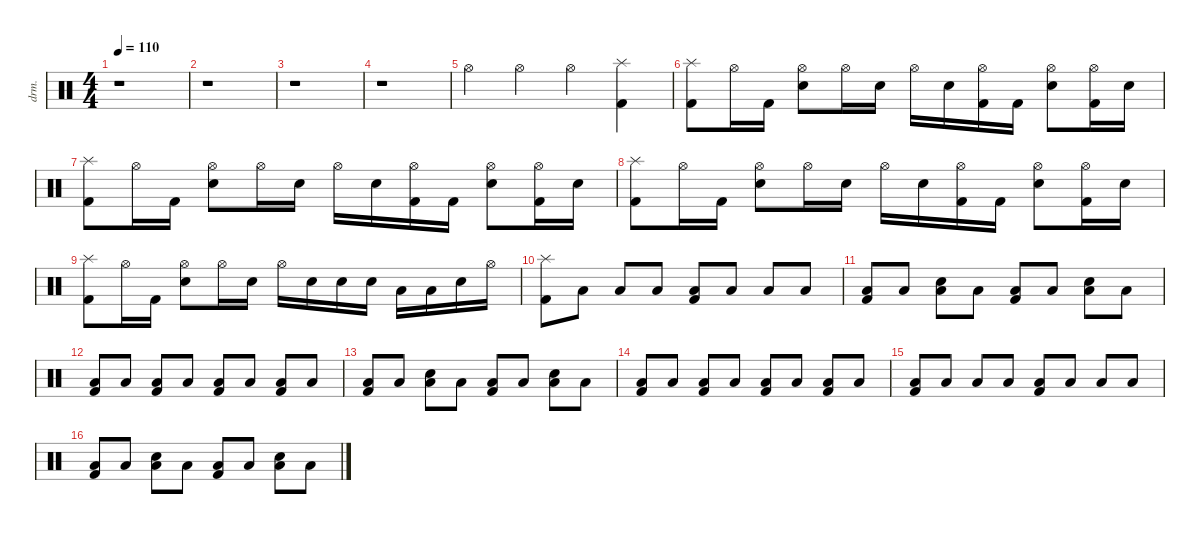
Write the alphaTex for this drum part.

\defaultSystemsLayout 4
\hideDynamics
\bracketExtendMode nobrackets
\track ("Drumkit" "drm.") {instrument percussion}
\staff {score}
\articulation defaults
\ts (4 4)
\tempo 110
\clef neutral
\ks c
r.1{dy mf beam Down} |
r.1{beam Down} |
r.1{beam Down} |
r.1{beam Down} |
"Hi-Hat (open)".4{beam Down} "Hi-Hat (open)".4{beam Down} "Hi-Hat (open)".4{beam Down} ("Splash (hit)" "Kick (hit) 2").4{beam Down} |
("Splash (hit)" "Kick (hit) 2").8{beam Down} "Hi-Hat (open)".16{beam Down} "Kick (hit) 2".16{beam Down} ("Hi-Hat (open)" "Snare (hit) 2").8{beam Down} "Hi-Hat (open)".16{beam Down} "Snare (hit) 2".16{beam Down} "Hi-Hat (open)".16{beam Down} "Snare (hit) 2".16{beam Down} ("Hi-Hat (open)" "Kick (hit) 2").16{beam Down} "Kick (hit) 2".16{beam Down} ("Hi-Hat (open)" "Snare (hit) 2").8{beam Down} ("Hi-Hat (open)" "Kick (hit) 2").16{beam Down} "Snare (hit) 2".16{beam Down} |
("Splash (hit)" "Kick (hit) 2").8{beam Down} "Hi-Hat (open)".16{beam Down} "Kick (hit) 2".16{beam Down} ("Hi-Hat (open)" "Snare (hit) 2").8{beam Down} "Hi-Hat (open)".16{beam Down} "Snare (hit) 2".16{beam Down} "Hi-Hat (open)".16{beam Down} "Snare (hit) 2".16{beam Down} ("Hi-Hat (open)" "Kick (hit) 2").16{beam Down} "Kick (hit) 2".16{beam Down} ("Hi-Hat (open)" "Snare (hit) 2").8{beam Down} ("Hi-Hat (open)" "Kick (hit) 2").16{beam Down} "Snare (hit) 2".16{beam Down} |
("Splash (hit)" "Kick (hit) 2").8{beam Down} "Hi-Hat (open)".16{beam Down} "Kick (hit) 2".16{beam Down} ("Hi-Hat (open)" "Snare (hit) 2").8{beam Down} "Hi-Hat (open)".16{beam Down} "Snare (hit) 2".16{beam Down} "Hi-Hat (open)".16{beam Down} "Snare (hit) 2".16{beam Down} ("Hi-Hat (open)" "Kick (hit) 2").16{beam Down} "Kick (hit) 2".16{beam Down} ("Hi-Hat (open)" "Snare (hit) 2").8{beam Down} ("Hi-Hat (open)" "Kick (hit) 2").16{beam Down} "Snare (hit) 2".16{beam Down} |
("Splash (hit)" "Kick (hit) 2").8{beam Down} "Hi-Hat (open)".16{beam Down} "Kick (hit) 2".16{beam Down} ("Snare (hit) 2" "Hi-Hat (open)").8{beam Down} "Hi-Hat (open)".16{beam Down} "Snare (hit) 2".16{beam Down} "Hi-Hat (open)".16{beam Down} "Snare (hit) 2".16{beam Down} "Snare (hit) 2".16{beam Down} "Snare (hit) 2".16{beam Down} "Low Tom (hit)".16{beam Down} "Low Tom (hit)".16{beam Down} "Snare (hit) 2".16{beam Down} "Hi-Hat (open)".16{beam Down} |
("Splash (hit)" "Kick (hit) 2").8{beam Down} "Low Tom (hit)".8{beam Down} "Low Tom (hit)".8{beam Up} "Low Tom (hit)".8{beam Up} ("Low Tom (hit)" "Kick (hit) 2").8{beam Up} "Low Tom (hit)".8{beam Up} "Low Tom (hit)".8{beam Up} "Low Tom (hit)".8{beam Up} |
("Kick (hit) 2" "Low Tom (hit)").8{beam Up} "Low Tom (hit)".8{beam Up} ("Low Tom (hit)" "Snare (hit) 2").8{beam Down} "Low Tom (hit)".8{beam Down} ("Low Tom (hit)" "Kick (hit) 2").8{beam Up} "Low Tom (hit)".8{beam Up} ("Snare (hit) 2" "Low Tom (hit)").8{beam Down} "Low Tom (hit)".8{beam Down} |
("Low Tom (hit)" "Kick (hit) 2").8{beam Up} "Low Tom (hit)".8{beam Up} ("Low Tom (hit)" "Kick (hit) 2").8{beam Up} "Low Tom (hit)".8{beam Up} ("Low Tom (hit)" "Kick (hit) 2").8{beam Up} "Low Tom (hit)".8{beam Up} ("Low Tom (hit)" "Kick (hit) 2").8{beam Up} "Low Tom (hit)".8{beam Up} |
("Kick (hit) 2" "Low Tom (hit)").8{beam Up} "Low Tom (hit)".8{beam Up} ("Low Tom (hit)" "Snare (hit) 2").8{beam Down} "Low Tom (hit)".8{beam Down} ("Low Tom (hit)" "Kick (hit) 2").8{beam Up} "Low Tom (hit)".8{beam Up} ("Snare (hit) 2" "Low Tom (hit)").8{beam Down} "Low Tom (hit)".8{beam Down} |
("Low Tom (hit)" "Kick (hit) 2").8{beam Up} "Low Tom (hit)".8{beam Up} ("Low Tom (hit)" "Kick (hit) 2").8{beam Up} "Low Tom (hit)".8{beam Up} ("Low Tom (hit)" "Kick (hit) 2").8{beam Up} "Low Tom (hit)".8{beam Up} ("Low Tom (hit)" "Kick (hit) 2").8{beam Up} "Low Tom (hit)".8{beam Up} |
("Kick (hit) 2" "Low Tom (hit)").8{beam Up} "Low Tom (hit)".8{beam Up} "Low Tom (hit)".8{beam Up} "Low Tom (hit)".8{beam Up} ("Low Tom (hit)" "Kick (hit) 2").8{beam Up} "Low Tom (hit)".8{beam Up} "Low Tom (hit)".8{beam Up} "Low Tom (hit)".8{beam Up} |
("Kick (hit) 2" "Low Tom (hit)").8{beam Up} "Low Tom (hit)".8{beam Up} ("Low Tom (hit)" "Snare (hit) 2").8{beam Down} "Low Tom (hit)".8{beam Down} ("Low Tom (hit)" "Kick (hit) 2").8{beam Up} "Low Tom (hit)".8{beam Up} ("Snare (hit) 2" "Low Tom (hit)").8{beam Down} "Low Tom (hit)".8{beam Down}
